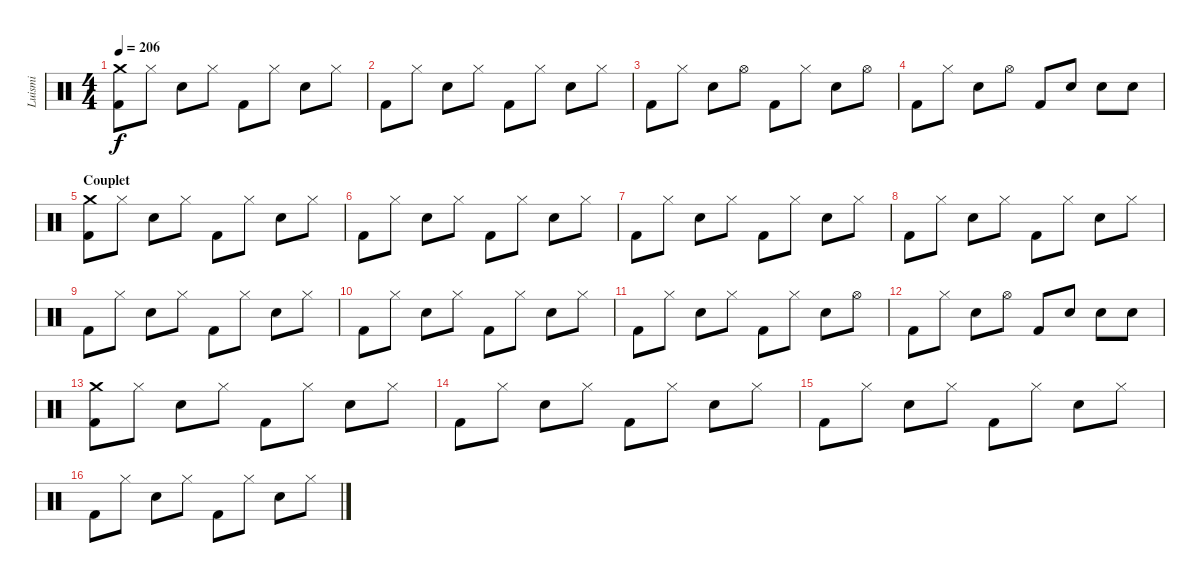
\track ("Luismi" "Luismi") {instrument percussion}
\staff {score}
\articulation defaults
\ts (4 4)
\tempo 206
\clef neutral
\ks c
("Crash medium (hit)" "Kick (hit) 2").8{dy f} "Hi-Hat (closed)".8 "Snare (hit) 2".8 "Hi-Hat (closed)".8 "Kick (hit) 2".8 "Hi-Hat (closed)".8 "Snare (hit) 2".8 "Hi-Hat (closed)".8 |
"Kick (hit) 2".8 "Hi-Hat (closed)".8 "Snare (hit) 2".8 "Hi-Hat (closed)".8 "Kick (hit) 2".8 "Hi-Hat (closed)".8 "Snare (hit) 2".8 "Hi-Hat (closed)".8 |
"Kick (hit) 2".8 "Hi-Hat (closed)".8 "Snare (hit) 2".8 "Hi-Hat (open)".8 "Kick (hit) 2".8 "Hi-Hat (closed)".8 "Snare (hit) 2".8 "Hi-Hat (open)".8 |
"Kick (hit) 2".8 "Hi-Hat (closed)".8 "Snare (hit) 2".8 "Hi-Hat (open)".8 "Kick (hit) 2".8 "Snare (hit) 2".8 "Snare (hit) 2".8 "Snare (hit) 2".8 |
\section ("" "Couplet")
("Crash medium (hit)" "Kick (hit) 2").8 "Hi-Hat (closed)".8 "Snare (hit) 2".8 "Hi-Hat (closed)".8 "Kick (hit) 2".8 "Hi-Hat (closed)".8 "Snare (hit) 2".8 "Hi-Hat (closed)".8 |
"Kick (hit) 2".8 "Hi-Hat (closed)".8 "Snare (hit) 2".8 "Hi-Hat (closed)".8 "Kick (hit) 2".8 "Hi-Hat (closed)".8 "Snare (hit) 2".8 "Hi-Hat (closed)".8 |
"Kick (hit) 2".8 "Hi-Hat (closed)".8 "Snare (hit) 2".8 "Hi-Hat (closed)".8 "Kick (hit) 2".8 "Hi-Hat (closed)".8 "Snare (hit) 2".8 "Hi-Hat (closed)".8 |
"Kick (hit) 2".8 "Hi-Hat (closed)".8 "Snare (hit) 2".8 "Hi-Hat (closed)".8 "Kick (hit) 2".8 "Hi-Hat (closed)".8 "Snare (hit) 2".8 "Hi-Hat (closed)".8 |
"Kick (hit) 2".8 "Hi-Hat (closed)".8 "Snare (hit) 2".8 "Hi-Hat (closed)".8 "Kick (hit) 2".8 "Hi-Hat (closed)".8 "Snare (hit) 2".8 "Hi-Hat (closed)".8 |
"Kick (hit) 2".8 "Hi-Hat (closed)".8 "Snare (hit) 2".8 "Hi-Hat (closed)".8 "Kick (hit) 2".8 "Hi-Hat (closed)".8 "Snare (hit) 2".8 "Hi-Hat (closed)".8 |
"Kick (hit) 2".8 "Hi-Hat (closed)".8 "Snare (hit) 2".8 "Hi-Hat (closed)".8 "Kick (hit) 2".8 "Hi-Hat (closed)".8 "Snare (hit) 2".8 "Hi-Hat (open)".8 |
"Kick (hit) 2".8 "Hi-Hat (closed)".8 "Snare (hit) 2".8 "Hi-Hat (open)".8 "Kick (hit) 2".8 "Snare (hit) 2".8 "Snare (hit) 2".8 "Snare (hit) 2".8 |
("Crash medium (hit)" "Kick (hit) 2").8 "Hi-Hat (closed)".8 "Snare (hit) 2".8 "Hi-Hat (closed)".8 "Kick (hit) 2".8 "Hi-Hat (closed)".8 "Snare (hit) 2".8 "Hi-Hat (closed)".8 |
"Kick (hit) 2".8 "Hi-Hat (closed)".8 "Snare (hit) 2".8 "Hi-Hat (closed)".8 "Kick (hit) 2".8 "Hi-Hat (closed)".8 "Snare (hit) 2".8 "Hi-Hat (closed)".8 |
"Kick (hit) 2".8 "Hi-Hat (closed)".8 "Snare (hit) 2".8 "Hi-Hat (closed)".8 "Kick (hit) 2".8 "Hi-Hat (closed)".8 "Snare (hit) 2".8 "Hi-Hat (closed)".8 |
"Kick (hit) 2".8 "Hi-Hat (closed)".8 "Snare (hit) 2".8 "Hi-Hat (closed)".8 "Kick (hit) 2".8 "Hi-Hat (closed)".8 "Snare (hit) 2".8 "Hi-Hat (closed)".8
